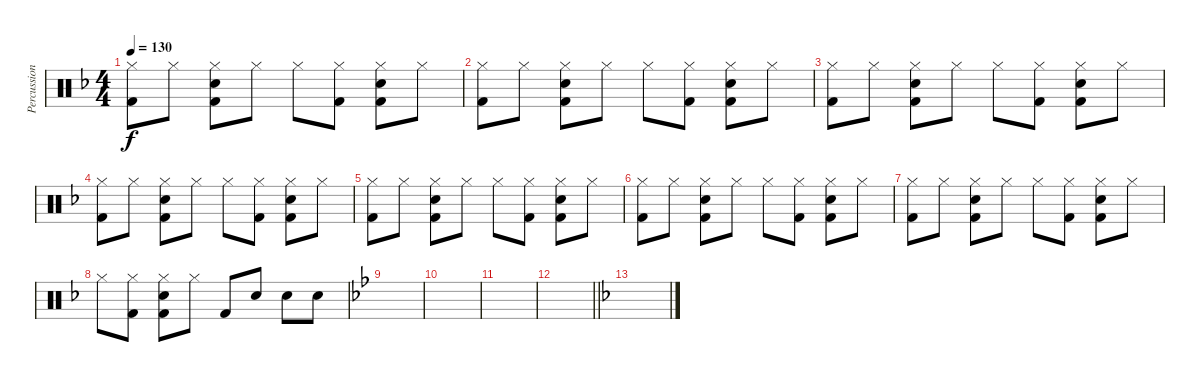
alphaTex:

\track ("Percussion" "Percussion") {instrument percussion}
\staff {score}
\articulation defaults
\ts (4 4)
\tempo 130
\clef neutral
\ks f
("Hi-Hat (closed)" "Kick (hit) 2").8{dy f} "Hi-Hat (closed)".8 ("Hi-Hat (closed)" "Snare (hit) 2" "Kick (hit) 2").8 "Hi-Hat (closed)".8 "Hi-Hat (closed)".8 ("Hi-Hat (closed)" "Kick (hit) 2").8 ("Hi-Hat (closed)" "Snare (hit) 2" "Kick (hit) 2").8 "Hi-Hat (closed)".8 |
("Hi-Hat (closed)" "Kick (hit) 2").8 "Hi-Hat (closed)".8 ("Hi-Hat (closed)" "Snare (hit) 2" "Kick (hit) 2").8 "Hi-Hat (closed)".8 "Hi-Hat (closed)".8 ("Hi-Hat (closed)" "Kick (hit) 2").8 ("Hi-Hat (closed)" "Snare (hit) 2" "Kick (hit) 2").8 "Hi-Hat (closed)".8 |
("Hi-Hat (closed)" "Kick (hit) 2").8 "Hi-Hat (closed)".8 ("Hi-Hat (closed)" "Snare (hit) 2" "Kick (hit) 2").8 "Hi-Hat (closed)".8 "Hi-Hat (closed)".8 ("Hi-Hat (closed)" "Kick (hit) 2").8 ("Hi-Hat (closed)" "Snare (hit) 2" "Kick (hit) 2").8 "Hi-Hat (closed)".8 |
("Hi-Hat (closed)" "Kick (hit) 2").8 "Hi-Hat (closed)".8 ("Hi-Hat (closed)" "Snare (hit) 2" "Kick (hit) 2").8 "Hi-Hat (closed)".8 "Hi-Hat (closed)".8 ("Hi-Hat (closed)" "Kick (hit) 2").8 ("Hi-Hat (closed)" "Snare (hit) 2" "Kick (hit) 2").8 "Hi-Hat (closed)".8 |
("Hi-Hat (closed)" "Kick (hit) 2").8 "Hi-Hat (closed)".8 ("Hi-Hat (closed)" "Snare (hit) 2" "Kick (hit) 2").8 "Hi-Hat (closed)".8 "Hi-Hat (closed)".8 ("Hi-Hat (closed)" "Kick (hit) 2").8 ("Hi-Hat (closed)" "Snare (hit) 2" "Kick (hit) 2").8 "Hi-Hat (closed)".8 |
("Hi-Hat (closed)" "Kick (hit) 2").8 "Hi-Hat (closed)".8 ("Hi-Hat (closed)" "Snare (hit) 2" "Kick (hit) 2").8 "Hi-Hat (closed)".8 "Hi-Hat (closed)".8 ("Hi-Hat (closed)" "Kick (hit) 2").8 ("Hi-Hat (closed)" "Snare (hit) 2" "Kick (hit) 2").8 "Hi-Hat (closed)".8 |
("Hi-Hat (closed)" "Kick (hit) 2").8 "Hi-Hat (closed)".8 ("Hi-Hat (closed)" "Snare (hit) 2" "Kick (hit) 2").8 "Hi-Hat (closed)".8 "Hi-Hat (closed)".8 ("Hi-Hat (closed)" "Kick (hit) 2").8 ("Hi-Hat (closed)" "Snare (hit) 2" "Kick (hit) 2").8 "Hi-Hat (closed)".8 |
"Hi-Hat (closed)".8 ("Hi-Hat (closed)" "Kick (hit) 2").8 ("Hi-Hat (closed)" "Snare (hit) 2" "Kick (hit) 2").8 "Hi-Hat (closed)".8 "Kick (hit) 2".8 "Snare (hit) 2".8 "Snare (hit) 2".8 "Snare (hit) 2".8 |
\ks bb
|
|
|
\barLineRight lightlight
|
\ks f
